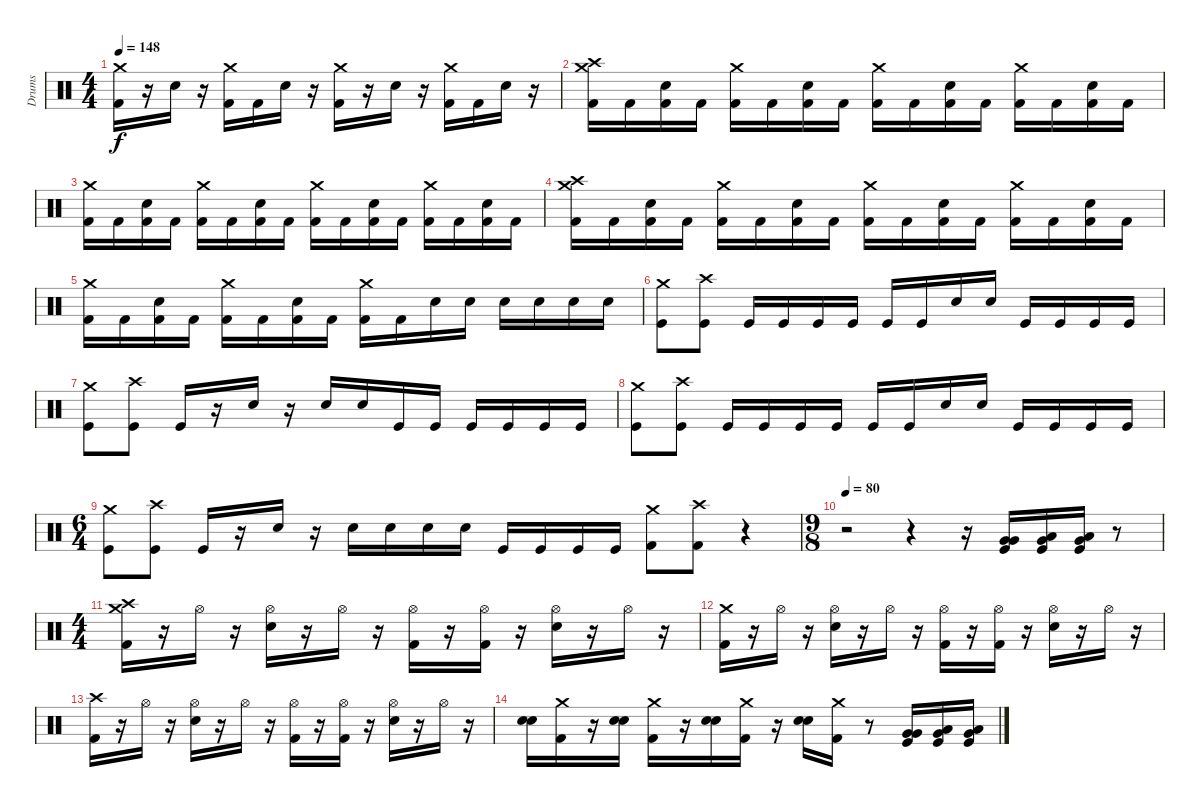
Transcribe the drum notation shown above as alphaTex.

\track ("Drums" "Drums") {instrument percussion}
\staff {score}
\articulation defaults
\ts (4 4)
\tempo 148
\clef neutral
\ks c
("Crash medium (hit)" "Kick (hit) 2").16{dy f} r.16 "Electric Snare (hit)".16 r.16 ("Crash medium (hit)" "Kick (hit) 2").16 "Kick (hit) 2".16 "Electric Snare (hit)".16 r.16 ("Crash medium (hit)" "Kick (hit) 2").16 r.16 "Electric Snare (hit)".16 r.16 ("Crash medium (hit)" "Kick (hit) 2").16 "Kick (hit) 2".16 "Electric Snare (hit)".16 r.16 |
("Crash high (hit)" "Crash medium (hit)" "Kick (hit) 2").16 "Kick (hit) 2".16 ("Electric Snare (hit)" "Kick (hit) 2").16 "Kick (hit) 2".16 ("Crash medium (hit)" "Kick (hit) 2").16 "Kick (hit) 2".16 ("Electric Snare (hit)" "Kick (hit) 2").16 "Kick (hit) 2".16 ("Crash medium (hit)" "Kick (hit) 2").16 "Kick (hit) 2".16 ("Electric Snare (hit)" "Kick (hit) 2").16 "Kick (hit) 2".16 ("Crash medium (hit)" "Kick (hit) 2").16 "Kick (hit) 2".16 ("Electric Snare (hit)" "Kick (hit) 2").16 "Kick (hit) 2".16 |
("Crash medium (hit)" "Kick (hit) 2").16 "Kick (hit) 2".16 ("Electric Snare (hit)" "Kick (hit) 2").16 "Kick (hit) 2".16 ("Crash medium (hit)" "Kick (hit) 2").16 "Kick (hit) 2".16 ("Electric Snare (hit)" "Kick (hit) 2").16 "Kick (hit) 2".16 ("Crash medium (hit)" "Kick (hit) 2").16 "Kick (hit) 2".16 ("Electric Snare (hit)" "Kick (hit) 2").16 "Kick (hit) 2".16 ("Crash medium (hit)" "Kick (hit) 2").16 "Kick (hit) 2".16 ("Electric Snare (hit)" "Kick (hit) 2").16 "Kick (hit) 2".16 |
("Crash high (hit)" "Crash medium (hit)" "Kick (hit) 2").16 "Kick (hit) 2".16 ("Electric Snare (hit)" "Kick (hit) 2").16 "Kick (hit) 2".16 ("Crash medium (hit)" "Kick (hit) 2").16 "Kick (hit) 2".16 ("Electric Snare (hit)" "Kick (hit) 2").16 "Kick (hit) 2".16 ("Crash medium (hit)" "Kick (hit) 2").16 "Kick (hit) 2".16 ("Electric Snare (hit)" "Kick (hit) 2").16 "Kick (hit) 2".16 ("Crash medium (hit)" "Kick (hit) 2").16 "Kick (hit) 2".16 ("Electric Snare (hit)" "Kick (hit) 2").16 "Kick (hit) 2".16 |
("Crash medium (hit)" "Kick (hit) 2").16 "Kick (hit) 2".16 ("Electric Snare (hit)" "Kick (hit) 2").16 "Kick (hit) 2".16 ("Crash medium (hit)" "Kick (hit) 2").16 "Kick (hit) 2".16 ("Electric Snare (hit)" "Kick (hit) 2").16 "Kick (hit) 2".16 ("Crash medium (hit)" "Kick (hit) 2").16 "Kick (hit) 2".16 "Electric Snare (hit)".16 "Electric Snare (hit)".16 "Electric Snare (hit)".16 "Electric Snare (hit)".16 "Electric Snare (hit)".16 "Electric Snare (hit)".16 |
("Crash medium (hit)" "Kick (hit)").8 ("Crash high (hit)" "Kick (hit)").8 "Kick (hit)".16{balance 2} "Kick (hit)".16 "Kick (hit)".16{balance 3} "Kick (hit)".16 "Kick (hit)".16{balance 4} "Kick (hit)".16 "Electric Snare (hit)".16{balance 5} "Electric Snare (hit)".16 "Kick (hit)".16{balance 6} "Kick (hit)".16 "Kick (hit)".16{balance 7} "Kick (hit)".16 |
("Crash medium (hit)" "Kick (hit)").8{balance 8} ("Crash high (hit)" "Kick (hit)").8 "Kick (hit)".16{balance 9} r.16 "Electric Snare (hit)".16{balance 10} r.16 "Electric Snare (hit)".16{balance 11} "Electric Snare (hit)".16 "Kick (hit)".16{balance 12} "Kick (hit)".16 "Kick (hit)".16{balance 13} "Kick (hit)".16 "Kick (hit)".16{balance 14} "Kick (hit)".16 |
("Crash medium (hit)" "Kick (hit)").8{balance 13} ("Crash high (hit)" "Kick (hit)").8{balance 12} "Kick (hit)".16 "Kick (hit)".16{balance 11} "Kick (hit)".16 "Kick (hit)".16{balance 10} "Kick (hit)".16 "Kick (hit)".16{balance 9} "Electric Snare (hit)".16 "Electric Snare (hit)".16{balance 8} "Kick (hit)".16 "Kick (hit)".16{balance 7} "Kick (hit)".16{balance 6} "Kick (hit)".16{balance 5} |
\ts (6 4)
("Crash medium (hit)" "Kick (hit)").8{balance 8} ("Crash high (hit)" "Kick (hit)").8 "Kick (hit)".16 r.16 "Electric Snare (hit)".16 r.16 "Electric Snare (hit)".16 "Electric Snare (hit)".16 "Electric Snare (hit)".16 "Electric Snare (hit)".16 "Kick (hit)".16 "Kick (hit)".16 "Kick (hit)".16 "Kick (hit)".16 ("Crash medium (hit)" "Kick (hit) 2").8 ("Crash high (hit)" "Kick (hit) 2").8 r.4 |
\ts (9 8)
\tempo 80
r.2 r.4 r.16 ("Very Low Tom (hit)" "Very Low Tom (hit)" "Kick (hit)").16{bu 120} ("Low Floor Tom (hit)" "Very Low Tom (hit)" "Kick (hit)").16{bu 120} ("Low Floor Tom (hit)" "Very Low Tom (hit)" "Kick (hit)").16{bu 120} r.8 |
\ts (4 4)
("Crash medium (hit)" "Crash high (hit)" "Kick (hit) 2").16 r.16 "Hi-Hat (open)".16 r.16 ("Hi-Hat (open)" "Electric Snare (hit)").16 r.16 "Hi-Hat (open)".16 r.16 ("Hi-Hat (open)" "Kick (hit) 2").16 r.16 ("Hi-Hat (open)" "Kick (hit) 2").16 r.16 ("Hi-Hat (open)" "Electric Snare (hit)").16 r.16 "Hi-Hat (open)".16 r.16 |
("Crash medium (hit)" "Kick (hit) 2").16 r.16 "Hi-Hat (open)".16 r.16 ("Hi-Hat (open)" "Electric Snare (hit)").16 r.16 "Hi-Hat (open)".16 r.16 ("Hi-Hat (open)" "Kick (hit) 2").16 r.16 ("Hi-Hat (open)" "Kick (hit) 2").16 r.16 ("Hi-Hat (open)" "Electric Snare (hit)").16 r.16 "Hi-Hat (open)".16 r.16 |
("Crash high (hit)" "Kick (hit) 2").16 r.16 "Hi-Hat (open)".16 r.16 ("Hi-Hat (open)" "Electric Snare (hit)").16 r.16 "Hi-Hat (open)".16 r.16 ("Hi-Hat (open)" "Kick (hit) 2").16 r.16 ("Hi-Hat (open)" "Kick (hit) 2").16 r.16 ("Hi-Hat (open)" "Electric Snare (hit)").16 r.16 "Hi-Hat (open)".16 r.16 |
("Electric Snare (hit)" "Electric Snare (hit)").16{bu 120} ("Crash medium (hit)" "Kick (hit) 2").16 r.16 ("Electric Snare (hit)" "Electric Snare (hit)").16{bu 120} ("Crash medium (hit)" "Kick (hit) 2").16 r.16 ("Electric Snare (hit)" "Electric Snare (hit)").16{bu 120} ("Crash medium (hit)" "Kick (hit) 2").16 r.16 ("Electric Snare (hit)" "Electric Snare (hit)").16{bu 120} ("Crash medium (hit)" "Kick (hit) 2").16 r.8 ("Very Low Tom (hit)" "Very Low Tom (hit)" "Kick (hit)").16{bu 120} ("Very Low Tom (hit)" "Low Floor Tom (hit)" "Kick (hit)").16{bu 120} ("Very Low Tom (hit)" "Low Floor Tom (hit)" "Kick (hit)").16{bu 120}
